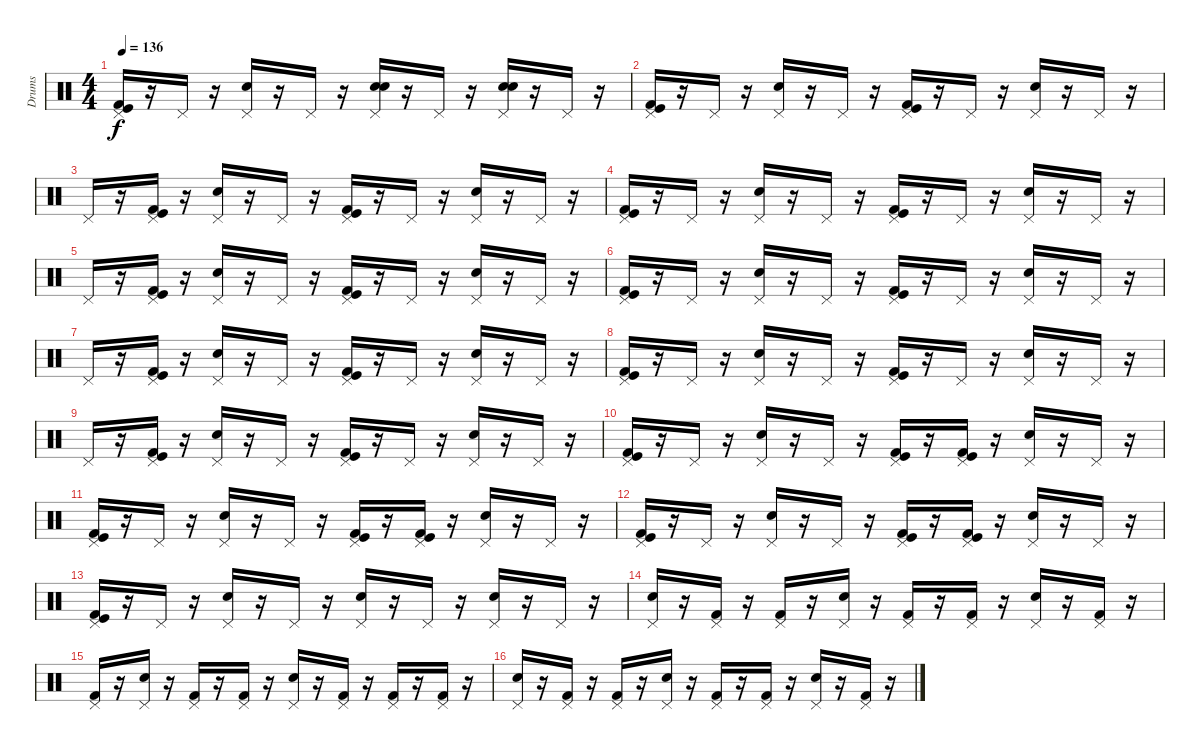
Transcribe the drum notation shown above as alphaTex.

\track ("Drums" "Drums") {instrument percussion}
\staff {score}
\articulation defaults
\ts (4 4)
\tempo 136
\clef neutral
\ks c
("Kick (hit) 2" "Kick (hit)" "Pedal Hi-Hat (hit)").16{dy f} r.16 "Pedal Hi-Hat (hit)".16 r.16 ("Snare (hit) 2" "Pedal Hi-Hat (hit)").16 r.16 "Pedal Hi-Hat (hit)".16 r.16 ("Snare (hit) 2" "Snare (hit) 2" "Pedal Hi-Hat (hit)").16 r.16 "Pedal Hi-Hat (hit)".16 r.16 ("Snare (hit) 2" "Snare (hit) 2" "Pedal Hi-Hat (hit)").16 r.16 "Pedal Hi-Hat (hit)".16 r.16 |
("Kick (hit) 2" "Kick (hit)" "Pedal Hi-Hat (hit)").16 r.16 "Pedal Hi-Hat (hit)".16 r.16 ("Snare (hit) 2" "Pedal Hi-Hat (hit)").16 r.16 "Pedal Hi-Hat (hit)".16 r.16 ("Kick (hit) 2" "Kick (hit)" "Pedal Hi-Hat (hit)").16 r.16 "Pedal Hi-Hat (hit)".16 r.16 ("Snare (hit) 2" "Pedal Hi-Hat (hit)").16 r.16 "Pedal Hi-Hat (hit)".16 r.16 |
"Pedal Hi-Hat (hit)".16 r.16 ("Kick (hit) 2" "Kick (hit)" "Pedal Hi-Hat (hit)").16 r.16 ("Snare (hit) 2" "Pedal Hi-Hat (hit)").16 r.16 "Pedal Hi-Hat (hit)".16 r.16 ("Kick (hit) 2" "Kick (hit)" "Pedal Hi-Hat (hit)").16 r.16 "Pedal Hi-Hat (hit)".16 r.16 ("Snare (hit) 2" "Pedal Hi-Hat (hit)").16 r.16 "Pedal Hi-Hat (hit)".16 r.16 |
("Kick (hit) 2" "Kick (hit)" "Pedal Hi-Hat (hit)").16 r.16 "Pedal Hi-Hat (hit)".16 r.16 ("Snare (hit) 2" "Pedal Hi-Hat (hit)").16 r.16 "Pedal Hi-Hat (hit)".16 r.16 ("Kick (hit) 2" "Kick (hit)" "Pedal Hi-Hat (hit)").16 r.16 "Pedal Hi-Hat (hit)".16 r.16 ("Snare (hit) 2" "Pedal Hi-Hat (hit)").16 r.16 "Pedal Hi-Hat (hit)".16 r.16 |
"Pedal Hi-Hat (hit)".16 r.16 ("Kick (hit) 2" "Kick (hit)" "Pedal Hi-Hat (hit)").16 r.16 ("Snare (hit) 2" "Pedal Hi-Hat (hit)").16 r.16 "Pedal Hi-Hat (hit)".16 r.16 ("Kick (hit) 2" "Kick (hit)" "Pedal Hi-Hat (hit)").16 r.16 "Pedal Hi-Hat (hit)".16 r.16 ("Snare (hit) 2" "Pedal Hi-Hat (hit)").16 r.16 "Pedal Hi-Hat (hit)".16 r.16 |
("Kick (hit) 2" "Kick (hit)" "Pedal Hi-Hat (hit)").16 r.16 "Pedal Hi-Hat (hit)".16 r.16 ("Snare (hit) 2" "Pedal Hi-Hat (hit)").16 r.16 "Pedal Hi-Hat (hit)".16 r.16 ("Kick (hit) 2" "Kick (hit)" "Pedal Hi-Hat (hit)").16 r.16 "Pedal Hi-Hat (hit)".16 r.16 ("Snare (hit) 2" "Pedal Hi-Hat (hit)").16 r.16 "Pedal Hi-Hat (hit)".16 r.16 |
"Pedal Hi-Hat (hit)".16 r.16 ("Kick (hit) 2" "Kick (hit)" "Pedal Hi-Hat (hit)").16 r.16 ("Snare (hit) 2" "Pedal Hi-Hat (hit)").16 r.16 "Pedal Hi-Hat (hit)".16 r.16 ("Kick (hit) 2" "Kick (hit)" "Pedal Hi-Hat (hit)").16 r.16 "Pedal Hi-Hat (hit)".16 r.16 ("Snare (hit) 2" "Pedal Hi-Hat (hit)").16 r.16 "Pedal Hi-Hat (hit)".16 r.16 |
("Kick (hit) 2" "Kick (hit)" "Pedal Hi-Hat (hit)").16 r.16 "Pedal Hi-Hat (hit)".16 r.16 ("Snare (hit) 2" "Pedal Hi-Hat (hit)").16 r.16 "Pedal Hi-Hat (hit)".16 r.16 ("Kick (hit) 2" "Kick (hit)" "Pedal Hi-Hat (hit)").16 r.16 "Pedal Hi-Hat (hit)".16 r.16 ("Snare (hit) 2" "Pedal Hi-Hat (hit)").16 r.16 "Pedal Hi-Hat (hit)".16 r.16 |
"Pedal Hi-Hat (hit)".16 r.16 ("Kick (hit) 2" "Kick (hit)" "Pedal Hi-Hat (hit)").16 r.16 ("Snare (hit) 2" "Pedal Hi-Hat (hit)").16 r.16 "Pedal Hi-Hat (hit)".16 r.16 ("Kick (hit) 2" "Kick (hit)" "Pedal Hi-Hat (hit)").16 r.16 "Pedal Hi-Hat (hit)".16 r.16 ("Snare (hit) 2" "Pedal Hi-Hat (hit)").16 r.16 "Pedal Hi-Hat (hit)".16 r.16 |
("Kick (hit) 2" "Kick (hit)" "Pedal Hi-Hat (hit)").16 r.16 "Pedal Hi-Hat (hit)".16 r.16 ("Electric Snare (hit)" "Pedal Hi-Hat (hit)").16 r.16 "Pedal Hi-Hat (hit)".16 r.16 ("Kick (hit) 2" "Kick (hit)" "Pedal Hi-Hat (hit)").16 r.16 ("Kick (hit) 2" "Kick (hit)" "Pedal Hi-Hat (hit)").16 r.16 ("Electric Snare (hit)" "Pedal Hi-Hat (hit)").16 r.16 "Pedal Hi-Hat (hit)".16 r.16 |
("Kick (hit) 2" "Kick (hit)" "Pedal Hi-Hat (hit)").16 r.16 "Pedal Hi-Hat (hit)".16 r.16 ("Electric Snare (hit)" "Pedal Hi-Hat (hit)").16 r.16 "Pedal Hi-Hat (hit)".16 r.16 ("Kick (hit) 2" "Kick (hit)" "Pedal Hi-Hat (hit)").16 r.16 ("Kick (hit) 2" "Kick (hit)" "Pedal Hi-Hat (hit)").16 r.16 ("Electric Snare (hit)" "Pedal Hi-Hat (hit)").16 r.16 "Pedal Hi-Hat (hit)".16 r.16 |
("Kick (hit) 2" "Kick (hit)" "Pedal Hi-Hat (hit)").16 r.16 "Pedal Hi-Hat (hit)".16 r.16 ("Electric Snare (hit)" "Pedal Hi-Hat (hit)").16 r.16 "Pedal Hi-Hat (hit)".16 r.16 ("Kick (hit) 2" "Kick (hit)" "Pedal Hi-Hat (hit)").16 r.16 ("Kick (hit) 2" "Kick (hit)" "Pedal Hi-Hat (hit)").16 r.16 ("Electric Snare (hit)" "Pedal Hi-Hat (hit)").16 r.16 "Pedal Hi-Hat (hit)".16 r.16 |
("Kick (hit) 2" "Kick (hit)" "Pedal Hi-Hat (hit)").16 r.16 "Pedal Hi-Hat (hit)".16 r.16 ("Electric Snare (hit)" "Pedal Hi-Hat (hit)").16 r.16 "Pedal Hi-Hat (hit)".16 r.16 ("Snare (hit) 2" "Pedal Hi-Hat (hit)").16 r.16 "Pedal Hi-Hat (hit)".16 r.16 ("Snare (hit) 2" "Pedal Hi-Hat (hit)").16 r.16 "Pedal Hi-Hat (hit)".16 r.16 |
("Snare (hit) 2" "Pedal Hi-Hat (hit)").16 r.16 ("Kick (hit) 2" "Pedal Hi-Hat (hit)").16 r.16 ("Kick (hit) 2" "Pedal Hi-Hat (hit)").16 r.16 ("Snare (hit) 2" "Pedal Hi-Hat (hit)").16 r.16 ("Kick (hit) 2" "Pedal Hi-Hat (hit)").16 r.16 ("Kick (hit) 2" "Pedal Hi-Hat (hit)").16 r.16 ("Snare (hit) 2" "Pedal Hi-Hat (hit)").16 r.16 ("Kick (hit) 2" "Pedal Hi-Hat (hit)").16 r.16 |
("Kick (hit) 2" "Pedal Hi-Hat (hit)").16 r.16 ("Snare (hit) 2" "Pedal Hi-Hat (hit)").16 r.16 ("Kick (hit) 2" "Pedal Hi-Hat (hit)").16 r.16 ("Kick (hit) 2" "Pedal Hi-Hat (hit)").16 r.16 ("Snare (hit) 2" "Pedal Hi-Hat (hit)").16 r.16 ("Kick (hit) 2" "Pedal Hi-Hat (hit)").16 r.16 ("Kick (hit) 2" "Pedal Hi-Hat (hit)").16 r.16 ("Kick (hit) 2" "Pedal Hi-Hat (hit)").16 r.16 |
("Snare (hit) 2" "Pedal Hi-Hat (hit)").16 r.16 ("Kick (hit) 2" "Pedal Hi-Hat (hit)").16 r.16 ("Kick (hit) 2" "Pedal Hi-Hat (hit)").16 r.16 ("Snare (hit) 2" "Pedal Hi-Hat (hit)").16 r.16 ("Kick (hit) 2" "Pedal Hi-Hat (hit)").16 r.16 ("Kick (hit) 2" "Pedal Hi-Hat (hit)").16 r.16 ("Snare (hit) 2" "Pedal Hi-Hat (hit)").16 r.16 ("Kick (hit) 2" "Pedal Hi-Hat (hit)").16 r.16
